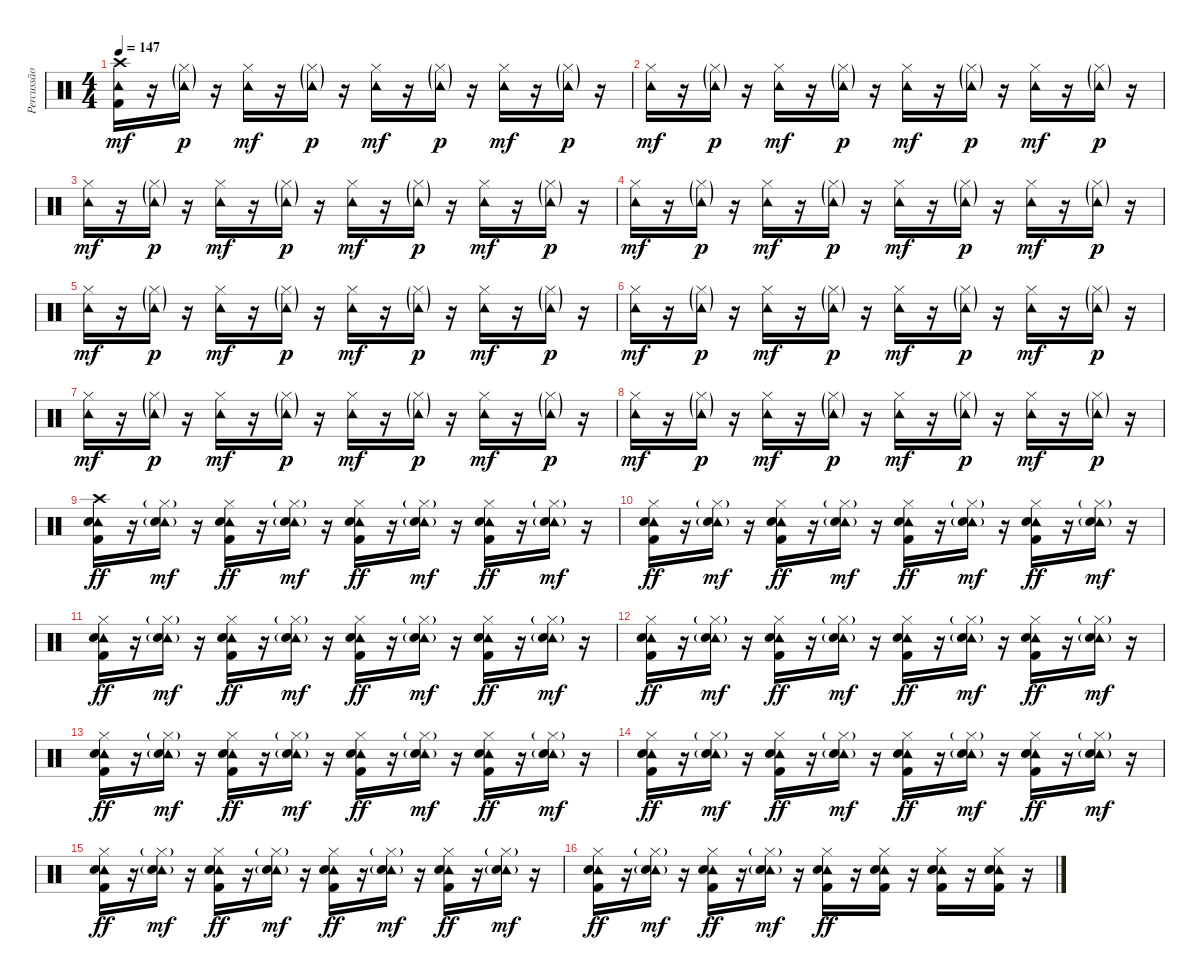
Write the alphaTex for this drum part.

\track ("Percussão" "Percussão") {instrument percussion}
\staff {score}
\articulation defaults
\ts (4 4)
\tempo 147
\clef neutral
\ks c
("Crash high (hit)" "Tambourine (hit)" "Kick (hit) 2").16{dy mf} r.16 ("Hi-Hat (closed)"{g} "Tambourine (hit)"{g}).16{dy p} r.16 ("Hi-Hat (closed)" "Tambourine (hit)").16{dy mf} r.16 ("Hi-Hat (closed)"{g} "Tambourine (hit)"{g}).16{dy p} r.16 ("Hi-Hat (closed)" "Tambourine (hit)").16{dy mf} r.16 ("Hi-Hat (closed)"{g} "Tambourine (hit)"{g}).16{dy p} r.16 ("Hi-Hat (closed)" "Tambourine (hit)").16{dy mf} r.16 ("Hi-Hat (closed)"{g} "Tambourine (hit)"{g}).16{dy p} r.16 |
("Hi-Hat (closed)" "Tambourine (hit)").16{dy mf} r.16 ("Hi-Hat (closed)"{g} "Tambourine (hit)"{g}).16{dy p} r.16 ("Hi-Hat (closed)" "Tambourine (hit)").16{dy mf} r.16 ("Hi-Hat (closed)"{g} "Tambourine (hit)"{g}).16{dy p} r.16 ("Hi-Hat (closed)" "Tambourine (hit)").16{dy mf} r.16 ("Hi-Hat (closed)"{g} "Tambourine (hit)"{g}).16{dy p} r.16 ("Hi-Hat (closed)" "Tambourine (hit)").16{dy mf} r.16 ("Hi-Hat (closed)"{g} "Tambourine (hit)"{g}).16{dy p} r.16 |
("Hi-Hat (closed)" "Tambourine (hit)").16{dy mf} r.16 ("Hi-Hat (closed)"{g} "Tambourine (hit)"{g}).16{dy p} r.16 ("Hi-Hat (closed)" "Tambourine (hit)").16{dy mf} r.16 ("Hi-Hat (closed)"{g} "Tambourine (hit)"{g}).16{dy p} r.16 ("Hi-Hat (closed)" "Tambourine (hit)").16{dy mf} r.16 ("Hi-Hat (closed)"{g} "Tambourine (hit)"{g}).16{dy p} r.16 ("Hi-Hat (closed)" "Tambourine (hit)").16{dy mf} r.16 ("Hi-Hat (closed)"{g} "Tambourine (hit)"{g}).16{dy p} r.16 |
("Hi-Hat (closed)" "Tambourine (hit)").16{dy mf} r.16 ("Hi-Hat (closed)"{g} "Tambourine (hit)"{g}).16{dy p} r.16 ("Hi-Hat (closed)" "Tambourine (hit)").16{dy mf} r.16 ("Hi-Hat (closed)"{g} "Tambourine (hit)"{g}).16{dy p} r.16 ("Hi-Hat (closed)" "Tambourine (hit)").16{dy mf} r.16 ("Hi-Hat (closed)"{g} "Tambourine (hit)"{g}).16{dy p} r.16 ("Hi-Hat (closed)" "Tambourine (hit)").16{dy mf} r.16 ("Hi-Hat (closed)"{g} "Tambourine (hit)"{g}).16{dy p} r.16 |
("Hi-Hat (closed)" "Tambourine (hit)").16{dy mf} r.16 ("Hi-Hat (closed)"{g} "Tambourine (hit)"{g}).16{dy p} r.16 ("Hi-Hat (closed)" "Tambourine (hit)").16{dy mf} r.16 ("Hi-Hat (closed)"{g} "Tambourine (hit)"{g}).16{dy p} r.16 ("Hi-Hat (closed)" "Tambourine (hit)").16{dy mf} r.16 ("Hi-Hat (closed)"{g} "Tambourine (hit)"{g}).16{dy p} r.16 ("Hi-Hat (closed)" "Tambourine (hit)").16{dy mf} r.16 ("Hi-Hat (closed)"{g} "Tambourine (hit)"{g}).16{dy p} r.16 |
("Hi-Hat (closed)" "Tambourine (hit)").16{dy mf} r.16 ("Hi-Hat (closed)"{g} "Tambourine (hit)"{g}).16{dy p} r.16 ("Hi-Hat (closed)" "Tambourine (hit)").16{dy mf} r.16 ("Hi-Hat (closed)"{g} "Tambourine (hit)"{g}).16{dy p} r.16 ("Hi-Hat (closed)" "Tambourine (hit)").16{dy mf} r.16 ("Hi-Hat (closed)"{g} "Tambourine (hit)"{g}).16{dy p} r.16 ("Hi-Hat (closed)" "Tambourine (hit)").16{dy mf} r.16 ("Hi-Hat (closed)"{g} "Tambourine (hit)"{g}).16{dy p} r.16 |
("Hi-Hat (closed)" "Tambourine (hit)").16{dy mf} r.16 ("Hi-Hat (closed)"{g} "Tambourine (hit)"{g}).16{dy p} r.16 ("Hi-Hat (closed)" "Tambourine (hit)").16{dy mf} r.16 ("Hi-Hat (closed)"{g} "Tambourine (hit)"{g}).16{dy p} r.16 ("Hi-Hat (closed)" "Tambourine (hit)").16{dy mf} r.16 ("Hi-Hat (closed)"{g} "Tambourine (hit)"{g}).16{dy p} r.16 ("Hi-Hat (closed)" "Tambourine (hit)").16{dy mf} r.16 ("Hi-Hat (closed)"{g} "Tambourine (hit)"{g}).16{dy p} r.16 |
("Hi-Hat (closed)" "Tambourine (hit)").16{dy mf} r.16 ("Hi-Hat (closed)"{g} "Tambourine (hit)"{g}).16{dy p} r.16 ("Hi-Hat (closed)" "Tambourine (hit)").16{dy mf} r.16 ("Hi-Hat (closed)"{g} "Tambourine (hit)"{g}).16{dy p} r.16 ("Hi-Hat (closed)" "Tambourine (hit)").16{dy mf} r.16 ("Hi-Hat (closed)"{g} "Tambourine (hit)"{g}).16{dy p} r.16 ("Hi-Hat (closed)" "Tambourine (hit)").16{dy mf} r.16 ("Hi-Hat (closed)"{g} "Tambourine (hit)"{g}).16{dy p} r.16 |
("Crash high (hit)" "Tambourine (hit)" "Snare (hit) 2" "Kick (hit) 2").16{dy ff volume 13} r.16 ("Hi-Hat (closed)"{g} "Tambourine (hit)" "Snare (hit) 2"{g}).16{dy mf} r.16 ("Hi-Hat (closed)" "Tambourine (hit)" "Snare (hit) 2" "Kick (hit) 2").16{dy ff} r.16 ("Hi-Hat (closed)"{g} "Tambourine (hit)" "Snare (hit) 2"{g}).16{dy mf} r.16 ("Hi-Hat (closed)" "Tambourine (hit)" "Snare (hit) 2" "Kick (hit) 2").16{dy ff} r.16 ("Hi-Hat (closed)"{g} "Tambourine (hit)" "Snare (hit) 2"{g}).16{dy mf} r.16 ("Hi-Hat (closed)" "Tambourine (hit)" "Snare (hit) 2" "Kick (hit) 2").16{dy ff} r.16 ("Hi-Hat (closed)"{g} "Tambourine (hit)" "Snare (hit) 2"{g}).16{dy mf} r.16 |
("Hi-Hat (closed)" "Tambourine (hit)" "Snare (hit) 2" "Kick (hit) 2").16{dy ff} r.16 ("Hi-Hat (closed)"{g} "Tambourine (hit)" "Snare (hit) 2"{g}).16{dy mf} r.16 ("Hi-Hat (closed)" "Tambourine (hit)" "Snare (hit) 2" "Kick (hit) 2").16{dy ff} r.16 ("Hi-Hat (closed)"{g} "Tambourine (hit)" "Snare (hit) 2"{g}).16{dy mf} r.16 ("Hi-Hat (closed)" "Tambourine (hit)" "Snare (hit) 2" "Kick (hit) 2").16{dy ff} r.16 ("Hi-Hat (closed)"{g} "Tambourine (hit)" "Snare (hit) 2"{g}).16{dy mf} r.16 ("Hi-Hat (closed)" "Tambourine (hit)" "Snare (hit) 2" "Kick (hit) 2").16{dy ff} r.16 ("Hi-Hat (closed)"{g} "Tambourine (hit)" "Snare (hit) 2"{g}).16{dy mf} r.16 |
("Hi-Hat (closed)" "Tambourine (hit)" "Snare (hit) 2" "Kick (hit) 2").16{dy ff} r.16 ("Hi-Hat (closed)"{g} "Tambourine (hit)" "Snare (hit) 2"{g}).16{dy mf} r.16 ("Hi-Hat (closed)" "Tambourine (hit)" "Snare (hit) 2" "Kick (hit) 2").16{dy ff} r.16 ("Hi-Hat (closed)"{g} "Tambourine (hit)" "Snare (hit) 2"{g}).16{dy mf} r.16 ("Hi-Hat (closed)" "Tambourine (hit)" "Snare (hit) 2" "Kick (hit) 2").16{dy ff} r.16 ("Hi-Hat (closed)"{g} "Tambourine (hit)" "Snare (hit) 2"{g}).16{dy mf} r.16 ("Hi-Hat (closed)" "Tambourine (hit)" "Snare (hit) 2" "Kick (hit) 2").16{dy ff} r.16 ("Hi-Hat (closed)"{g} "Tambourine (hit)" "Snare (hit) 2"{g}).16{dy mf} r.16 |
("Hi-Hat (closed)" "Tambourine (hit)" "Snare (hit) 2" "Kick (hit) 2").16{dy ff} r.16 ("Hi-Hat (closed)"{g} "Tambourine (hit)" "Snare (hit) 2"{g}).16{dy mf} r.16 ("Hi-Hat (closed)" "Tambourine (hit)" "Snare (hit) 2" "Kick (hit) 2").16{dy ff} r.16 ("Hi-Hat (closed)"{g} "Tambourine (hit)" "Snare (hit) 2"{g}).16{dy mf} r.16 ("Hi-Hat (closed)" "Tambourine (hit)" "Snare (hit) 2" "Kick (hit) 2").16{dy ff} r.16 ("Hi-Hat (closed)"{g} "Tambourine (hit)" "Snare (hit) 2"{g}).16{dy mf} r.16 ("Hi-Hat (closed)" "Tambourine (hit)" "Snare (hit) 2" "Kick (hit) 2").16{dy ff} r.16 ("Hi-Hat (closed)"{g} "Tambourine (hit)" "Snare (hit) 2"{g}).16{dy mf} r.16 |
("Hi-Hat (closed)" "Tambourine (hit)" "Snare (hit) 2" "Kick (hit) 2").16{dy ff} r.16 ("Hi-Hat (closed)"{g} "Tambourine (hit)" "Snare (hit) 2"{g}).16{dy mf} r.16 ("Hi-Hat (closed)" "Tambourine (hit)" "Snare (hit) 2" "Kick (hit) 2").16{dy ff} r.16 ("Hi-Hat (closed)"{g} "Tambourine (hit)" "Snare (hit) 2"{g}).16{dy mf} r.16 ("Hi-Hat (closed)" "Tambourine (hit)" "Snare (hit) 2" "Kick (hit) 2").16{dy ff} r.16 ("Hi-Hat (closed)"{g} "Tambourine (hit)" "Snare (hit) 2"{g}).16{dy mf} r.16 ("Hi-Hat (closed)" "Tambourine (hit)" "Snare (hit) 2" "Kick (hit) 2").16{dy ff} r.16 ("Hi-Hat (closed)"{g} "Tambourine (hit)" "Snare (hit) 2"{g}).16{dy mf} r.16 |
("Hi-Hat (closed)" "Tambourine (hit)" "Snare (hit) 2" "Kick (hit) 2").16{dy ff} r.16 ("Hi-Hat (closed)"{g} "Tambourine (hit)" "Snare (hit) 2"{g}).16{dy mf} r.16 ("Hi-Hat (closed)" "Tambourine (hit)" "Snare (hit) 2" "Kick (hit) 2").16{dy ff} r.16 ("Hi-Hat (closed)"{g} "Tambourine (hit)" "Snare (hit) 2"{g}).16{dy mf} r.16 ("Hi-Hat (closed)" "Tambourine (hit)" "Snare (hit) 2" "Kick (hit) 2").16{dy ff} r.16 ("Hi-Hat (closed)"{g} "Tambourine (hit)" "Snare (hit) 2"{g}).16{dy mf} r.16 ("Hi-Hat (closed)" "Tambourine (hit)" "Snare (hit) 2" "Kick (hit) 2").16{dy ff} r.16 ("Hi-Hat (closed)"{g} "Tambourine (hit)" "Snare (hit) 2"{g}).16{dy mf} r.16 |
("Hi-Hat (closed)" "Tambourine (hit)" "Snare (hit) 2" "Kick (hit) 2").16{dy ff} r.16 ("Hi-Hat (closed)"{g} "Tambourine (hit)" "Snare (hit) 2"{g}).16{dy mf} r.16 ("Hi-Hat (closed)" "Tambourine (hit)" "Snare (hit) 2" "Kick (hit) 2").16{dy ff} r.16 ("Hi-Hat (closed)"{g} "Tambourine (hit)" "Snare (hit) 2"{g}).16{dy mf} r.16 ("Hi-Hat (closed)" "Tambourine (hit)" "Snare (hit) 2" "Kick (hit) 2").16{dy ff} r.16 ("Hi-Hat (closed)"{g} "Tambourine (hit)" "Snare (hit) 2"{g}).16{dy mf} r.16 ("Hi-Hat (closed)" "Tambourine (hit)" "Snare (hit) 2" "Kick (hit) 2").16{dy ff} r.16 ("Hi-Hat (closed)"{g} "Tambourine (hit)" "Snare (hit) 2"{g}).16{dy mf} r.16 |
("Hi-Hat (closed)" "Tambourine (hit)" "Snare (hit) 2" "Kick (hit) 2").16{dy ff} r.16 ("Hi-Hat (closed)"{g} "Tambourine (hit)" "Snare (hit) 2"{g}).16{dy mf} r.16 ("Hi-Hat (closed)" "Tambourine (hit)" "Snare (hit) 2" "Kick (hit) 2").16{dy ff} r.16 ("Hi-Hat (closed)"{g} "Tambourine (hit)" "Snare (hit) 2"{g}).16{dy mf} r.16 ("Hi-Hat (closed)" "Tambourine (hit)" "Snare (hit) 2" "Kick (hit) 2").16{dy ff} r.16 ("Hi-Hat (closed)" "Tambourine (hit)" "Snare (hit) 2" "Kick (hit) 2").16 r.16 ("Hi-Hat (closed)" "Tambourine (hit)" "Snare (hit) 2" "Kick (hit) 2").16 r.16 ("Hi-Hat (closed)" "Tambourine (hit)" "Snare (hit) 2" "Kick (hit) 2").16 r.16
